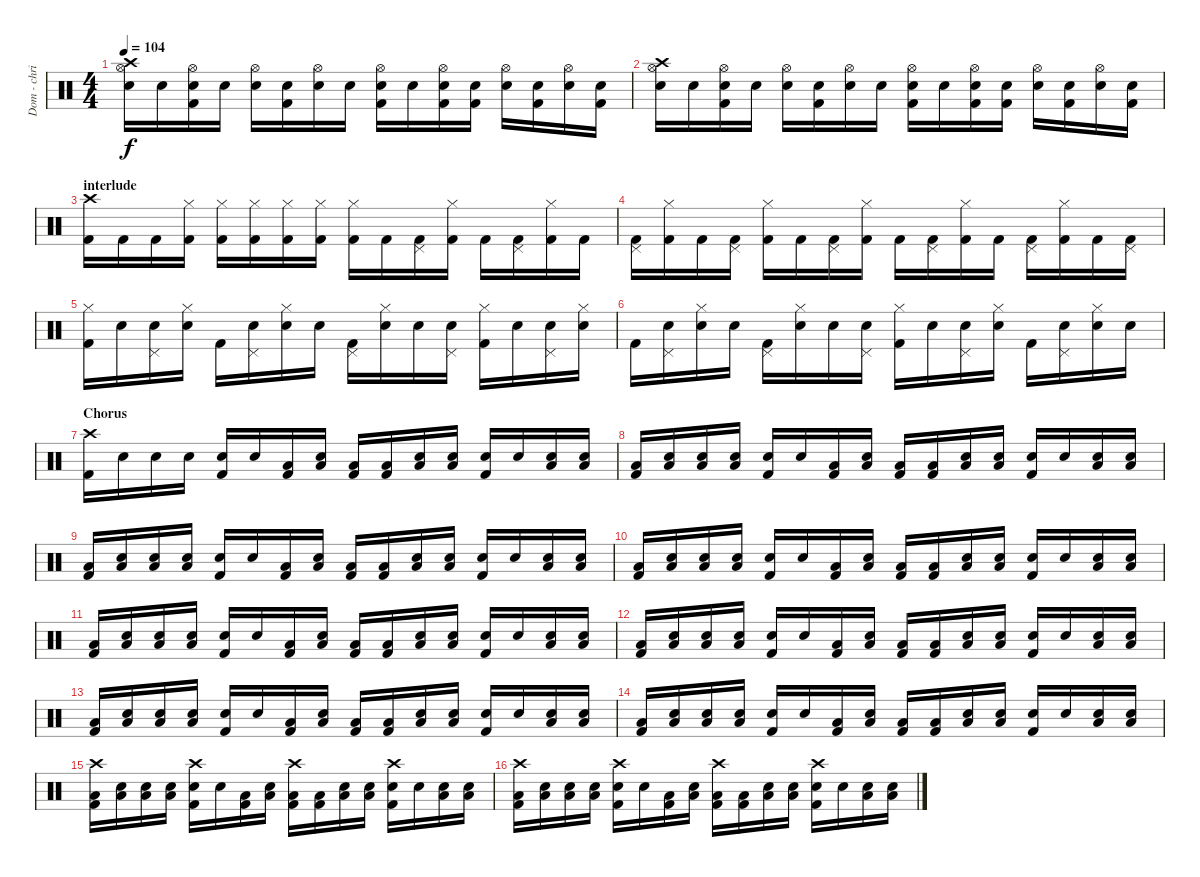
\track ("Dom - chris" "Dom - chri") {instrument percussion}
\staff {score}
\articulation defaults
\ts (4 4)
\tempo 104
\clef neutral
\ks c
("Crash high (hit)" "Hi-Hat (open)" "Snare (hit) 2").16{dy f} "Snare (hit) 2"{x}.16 ("Hi-Hat (open)" "Snare (hit) 2"{x} "Kick (hit) 2").16 "Snare (hit) 2".16 ("Hi-Hat (open)" "Snare (hit) 2"{x}).16 ("Snare (hit) 2"{x} "Kick (hit) 2").16 ("Hi-Hat (open)" "Snare (hit) 2").16 "Snare (hit) 2"{x}.16 ("Hi-Hat (open)" "Snare (hit) 2"{x} "Kick (hit) 2").16 "Snare (hit) 2".16 ("Hi-Hat (open)" "Snare (hit) 2"{x} "Kick (hit) 2").16 ("Snare (hit) 2"{x} "Kick (hit) 2").16 ("Hi-Hat (open)" "Snare (hit) 2").16 ("Snare (hit) 2"{x} "Kick (hit) 2").16 ("Hi-Hat (open)" "Snare (hit) 2").16 ("Snare (hit) 2"{x} "Kick (hit) 2").16 |
("Crash high (hit)" "Hi-Hat (open)" "Snare (hit) 2").16 "Snare (hit) 2"{x}.16 ("Hi-Hat (open)" "Snare (hit) 2"{x} "Kick (hit) 2").16 "Snare (hit) 2".16 ("Hi-Hat (open)" "Snare (hit) 2"{x}).16 ("Snare (hit) 2"{x} "Kick (hit) 2").16 ("Hi-Hat (open)" "Snare (hit) 2").16 "Snare (hit) 2"{x}.16 ("Hi-Hat (open)" "Snare (hit) 2"{x} "Kick (hit) 2").16 "Snare (hit) 2".16 ("Hi-Hat (open)" "Snare (hit) 2"{x} "Kick (hit) 2").16 ("Snare (hit) 2"{x} "Kick (hit) 2").16 ("Hi-Hat (open)" "Snare (hit) 2").16 ("Snare (hit) 2"{x} "Kick (hit) 2").16 ("Hi-Hat (open)" "Snare (hit) 2").16 ("Snare (hit) 2"{x} "Kick (hit) 2").16 |
\section ("" "interlude")
("Crash high (hit)" "Kick (hit) 2").16 "Kick (hit) 2"{x}.16 "Kick (hit) 2"{x}.16 ("Hi-Hat (closed)" "Kick (hit) 2"{x}).16 ("Hi-Hat (closed)" "Kick (hit) 2").16 ("Hi-Hat (closed)" "Kick (hit) 2"{x}).16 ("Hi-Hat (closed)" "Kick (hit) 2"{x}).16 ("Hi-Hat (closed)" "Kick (hit) 2"{x}).16 ("Hi-Hat (closed)" "Kick (hit) 2").16 "Kick (hit) 2"{x}.16 ("Pedal Hi-Hat (hit)" "Kick (hit) 2"{x}).16 ("Hi-Hat (closed)" "Kick (hit) 2"{x}).16 "Kick (hit) 2".16 ("Pedal Hi-Hat (hit)" "Kick (hit) 2"{x}).16 ("Hi-Hat (closed)" "Kick (hit) 2"{x}).16 "Kick (hit) 2"{x}.16 |
("Pedal Hi-Hat (hit)" "Kick (hit) 2").16 ("Hi-Hat (closed)" "Kick (hit) 2"{x}).16 "Kick (hit) 2"{x}.16 ("Pedal Hi-Hat (hit)" "Kick (hit) 2"{x}).16 ("Hi-Hat (closed)" "Kick (hit) 2").16 "Kick (hit) 2"{x}.16 ("Pedal Hi-Hat (hit)" "Kick (hit) 2"{x}).16 ("Hi-Hat (closed)" "Kick (hit) 2"{x}).16 "Kick (hit) 2".16 ("Pedal Hi-Hat (hit)" "Kick (hit) 2"{x}).16 ("Hi-Hat (closed)" "Kick (hit) 2"{x}).16 "Kick (hit) 2"{x}.16 ("Pedal Hi-Hat (hit)" "Kick (hit) 2").16 ("Hi-Hat (closed)" "Kick (hit) 2"{x}).16 "Kick (hit) 2"{x}.16 ("Pedal Hi-Hat (hit)" "Kick (hit) 2"{x}).16 |
("Hi-Hat (closed)" "Kick (hit) 2").16 "Snare (hit)"{x}.16 ("Pedal Hi-Hat (hit)" "Snare (hit)"{x}).16 ("Hi-Hat (closed)" "Snare (hit)"{x}).16 "Kick (hit) 2".16 ("Pedal Hi-Hat (hit)" "Snare (hit)"{x}).16 ("Hi-Hat (closed)" "Snare (hit)"{x}).16 "Snare (hit)"{x}.16 ("Pedal Hi-Hat (hit)" "Kick (hit) 2").16 ("Hi-Hat (closed)" "Snare (hit)"{x}).16 "Snare (hit)"{x}.16 ("Pedal Hi-Hat (hit)" "Snare (hit)"{x}).16 ("Hi-Hat (closed)" "Kick (hit) 2").16 "Snare (hit)"{x}.16 ("Pedal Hi-Hat (hit)" "Snare (hit)"{x}).16 ("Hi-Hat (closed)" "Snare (hit)"{x}).16 |
"Kick (hit) 2".16 ("Pedal Hi-Hat (hit)" "Snare (hit)"{x}).16 ("Hi-Hat (closed)" "Snare (hit)"{x}).16 "Snare (hit)"{x}.16 ("Pedal Hi-Hat (hit)" "Kick (hit) 2").16 ("Hi-Hat (closed)" "Snare (hit)"{x}).16 "Snare (hit)"{x}.16 ("Pedal Hi-Hat (hit)" "Snare (hit)"{x}).16 ("Hi-Hat (closed)" "Kick (hit) 2").16 "Snare (hit)"{x}.16 ("Pedal Hi-Hat (hit)" "Snare (hit)"{x}).16 ("Hi-Hat (closed)" "Snare (hit)"{x}).16 "Kick (hit) 2".16 ("Pedal Hi-Hat (hit)" "Snare (hit)"{x}).16 ("Hi-Hat (closed)" "Snare (hit)"{x}).16 "Snare (hit)"{x}.16 |
\section ("" "Chorus")
("Crash high (hit)" "Kick (hit) 2").16 "Snare (hit)"{x}.16 "Snare (hit)"{x}.16 "Snare (hit)"{x}.16 ("Snare (hit) 2" "Kick (hit) 2").16 "Snare (hit)"{x}.16 ("Low Tom (hit)" "Kick (hit) 2").16 ("Low Floor Tom (hit)" "Snare (hit)"{x}).16 ("Low Tom (hit)" "Kick (hit) 2").16 ("Low Floor Tom (hit)" "Kick (hit) 2"{x}).16 ("Low Tom (hit)" "Snare (hit)"{x}).16 ("Low Floor Tom (hit)" "Snare (hit)"{x}).16 ("Snare (hit) 2" "Kick (hit) 2").16 "Snare (hit)"{x}.16 ("Low Tom (hit)" "Snare (hit)"{x}).16 ("Low Floor Tom (hit)" "Snare (hit)"{x}).16 |
("Low Tom (hit)" "Kick (hit) 2").16 ("Low Floor Tom (hit)" "Snare (hit)"{x}).16 ("Low Tom (hit)" "Snare (hit)"{x}).16 ("Low Floor Tom (hit)" "Snare (hit)"{x}).16 ("Snare (hit) 2" "Kick (hit) 2").16 "Snare (hit)"{x}.16 ("Low Tom (hit)" "Kick (hit) 2").16 ("Low Floor Tom (hit)" "Snare (hit)"{x}).16 ("Low Tom (hit)" "Kick (hit) 2").16 ("Low Floor Tom (hit)" "Kick (hit) 2"{x}).16 ("Low Tom (hit)" "Snare (hit)"{x}).16 ("Low Floor Tom (hit)" "Snare (hit)"{x}).16 ("Snare (hit) 2" "Kick (hit) 2").16 "Snare (hit)"{x}.16 ("Low Tom (hit)" "Snare (hit)"{x}).16 ("Low Floor Tom (hit)" "Snare (hit)"{x}).16 |
("Low Tom (hit)" "Kick (hit) 2").16 ("Low Floor Tom (hit)" "Snare (hit)"{x}).16 ("Low Tom (hit)" "Snare (hit)"{x}).16 ("Low Floor Tom (hit)" "Snare (hit)"{x}).16 ("Snare (hit) 2" "Kick (hit) 2").16 "Snare (hit)"{x}.16 ("Low Tom (hit)" "Kick (hit) 2").16 ("Low Floor Tom (hit)" "Snare (hit)"{x}).16 ("Low Tom (hit)" "Kick (hit) 2").16 ("Low Floor Tom (hit)" "Kick (hit) 2"{x}).16 ("Low Tom (hit)" "Snare (hit)"{x}).16 ("Low Floor Tom (hit)" "Snare (hit)"{x}).16 ("Snare (hit) 2" "Kick (hit) 2").16 "Snare (hit)"{x}.16 ("Low Tom (hit)" "Snare (hit)"{x}).16 ("Low Floor Tom (hit)" "Snare (hit)"{x}).16 |
("Low Tom (hit)" "Kick (hit) 2").16 ("Low Floor Tom (hit)" "Snare (hit)"{x}).16 ("Low Tom (hit)" "Snare (hit)"{x}).16 ("Low Floor Tom (hit)" "Snare (hit)"{x}).16 ("Snare (hit) 2" "Kick (hit) 2").16 "Snare (hit)"{x}.16 ("Low Tom (hit)" "Kick (hit) 2").16 ("Low Floor Tom (hit)" "Snare (hit)"{x}).16 ("Low Tom (hit)" "Kick (hit) 2").16 ("Low Floor Tom (hit)" "Kick (hit) 2"{x}).16 ("Low Tom (hit)" "Snare (hit)"{x}).16 ("Low Floor Tom (hit)" "Snare (hit)"{x}).16 ("Snare (hit) 2" "Kick (hit) 2").16 "Snare (hit)"{x}.16 ("Low Tom (hit)" "Snare (hit)"{x}).16 ("Low Floor Tom (hit)" "Snare (hit)"{x}).16 |
("Low Tom (hit)" "Kick (hit) 2").16 ("Low Floor Tom (hit)" "Snare (hit)"{x}).16 ("Low Tom (hit)" "Snare (hit)"{x}).16 ("Low Floor Tom (hit)" "Snare (hit)"{x}).16 ("Snare (hit) 2" "Kick (hit) 2").16 "Snare (hit)"{x}.16 ("Low Tom (hit)" "Kick (hit) 2").16 ("Low Floor Tom (hit)" "Snare (hit)"{x}).16 ("Low Tom (hit)" "Kick (hit) 2").16 ("Low Floor Tom (hit)" "Kick (hit) 2"{x}).16 ("Low Tom (hit)" "Snare (hit)"{x}).16 ("Low Floor Tom (hit)" "Snare (hit)"{x}).16 ("Snare (hit) 2" "Kick (hit) 2").16 "Snare (hit)"{x}.16 ("Low Tom (hit)" "Snare (hit)"{x}).16 ("Low Floor Tom (hit)" "Snare (hit)"{x}).16 |
("Low Tom (hit)" "Kick (hit) 2").16 ("Low Floor Tom (hit)" "Snare (hit)"{x}).16 ("Low Tom (hit)" "Snare (hit)"{x}).16 ("Low Floor Tom (hit)" "Snare (hit)"{x}).16 ("Snare (hit) 2" "Kick (hit) 2").16 "Snare (hit)"{x}.16 ("Low Tom (hit)" "Kick (hit) 2").16 ("Low Floor Tom (hit)" "Snare (hit)"{x}).16 ("Low Tom (hit)" "Kick (hit) 2").16 ("Low Floor Tom (hit)" "Kick (hit) 2"{x}).16 ("Low Tom (hit)" "Snare (hit)"{x}).16 ("Low Floor Tom (hit)" "Snare (hit)"{x}).16 ("Snare (hit) 2" "Kick (hit) 2").16 "Snare (hit)"{x}.16 ("Low Tom (hit)" "Snare (hit)"{x}).16 ("Low Floor Tom (hit)" "Snare (hit)"{x}).16 |
("Low Tom (hit)" "Kick (hit) 2").16 ("Low Floor Tom (hit)" "Snare (hit)"{x}).16 ("Low Tom (hit)" "Snare (hit)"{x}).16 ("Low Floor Tom (hit)" "Snare (hit)"{x}).16 ("Snare (hit) 2" "Kick (hit) 2").16 "Snare (hit)"{x}.16 ("Low Tom (hit)" "Kick (hit) 2").16 ("Low Floor Tom (hit)" "Snare (hit)"{x}).16 ("Low Tom (hit)" "Kick (hit) 2").16 ("Low Floor Tom (hit)" "Kick (hit) 2"{x}).16 ("Low Tom (hit)" "Snare (hit)"{x}).16 ("Low Floor Tom (hit)" "Snare (hit)"{x}).16 ("Snare (hit) 2" "Kick (hit) 2").16 "Snare (hit)"{x}.16 ("Low Tom (hit)" "Snare (hit)"{x}).16 ("Low Floor Tom (hit)" "Snare (hit)"{x}).16 |
("Low Tom (hit)" "Kick (hit) 2").16 ("Low Floor Tom (hit)" "Snare (hit)"{x}).16 ("Low Tom (hit)" "Snare (hit)"{x}).16 ("Low Floor Tom (hit)" "Snare (hit)"{x}).16 ("Snare (hit) 2" "Kick (hit) 2").16 "Snare (hit)"{x}.16 ("Low Tom (hit)" "Kick (hit) 2").16 ("Low Floor Tom (hit)" "Snare (hit)"{x}).16 ("Low Tom (hit)" "Kick (hit) 2").16 ("Low Floor Tom (hit)" "Kick (hit) 2"{x}).16 ("Low Tom (hit)" "Snare (hit)"{x}).16 ("Low Floor Tom (hit)" "Snare (hit)"{x}).16 ("Snare (hit) 2" "Kick (hit) 2").16 "Snare (hit)"{x}.16 ("Low Tom (hit)" "Snare (hit)"{x}).16 ("Low Floor Tom (hit)" "Snare (hit)"{x}).16 |
\section ("" "")
("Crash high (hit)" "Low Tom (hit)" "Kick (hit) 2").16 ("Low Floor Tom (hit)" "Snare (hit)"{x}).16 ("Low Tom (hit)" "Snare (hit)"{x}).16 ("Low Floor Tom (hit)" "Snare (hit)"{x}).16 ("Crash high (hit)" "Snare (hit) 2" "Kick (hit) 2").16 "Snare (hit)"{x}.16 ("Low Tom (hit)" "Kick (hit) 2").16 ("Low Floor Tom (hit)" "Snare (hit)"{x}).16 ("Crash high (hit)" "Low Tom (hit)" "Kick (hit) 2").16 ("Low Floor Tom (hit)" "Kick (hit) 2"{x}).16 ("Low Tom (hit)" "Snare (hit)"{x}).16 ("Low Floor Tom (hit)" "Snare (hit)"{x}).16 ("Crash high (hit)" "Snare (hit) 2" "Kick (hit) 2").16 "Snare (hit)"{x}.16 ("Low Tom (hit)" "Snare (hit)"{x}).16 ("Low Floor Tom (hit)" "Snare (hit)"{x}).16 |
("Crash high (hit)" "Low Tom (hit)" "Kick (hit) 2").16 ("Low Floor Tom (hit)" "Snare (hit)"{x}).16 ("Low Tom (hit)" "Snare (hit)"{x}).16 ("Low Floor Tom (hit)" "Snare (hit)"{x}).16 ("Crash high (hit)" "Snare (hit) 2" "Kick (hit) 2").16 "Snare (hit)"{x}.16 ("Low Tom (hit)" "Kick (hit) 2").16 ("Low Floor Tom (hit)" "Snare (hit)"{x}).16 ("Crash high (hit)" "Low Tom (hit)" "Kick (hit) 2").16 ("Low Floor Tom (hit)" "Kick (hit) 2"{x}).16 ("Low Tom (hit)" "Snare (hit)"{x}).16 ("Low Floor Tom (hit)" "Snare (hit)"{x}).16 ("Crash high (hit)" "Snare (hit) 2" "Kick (hit) 2").16 "Snare (hit)"{x}.16 ("Low Tom (hit)" "Snare (hit)"{x}).16 ("Low Floor Tom (hit)" "Snare (hit)"{x}).16
